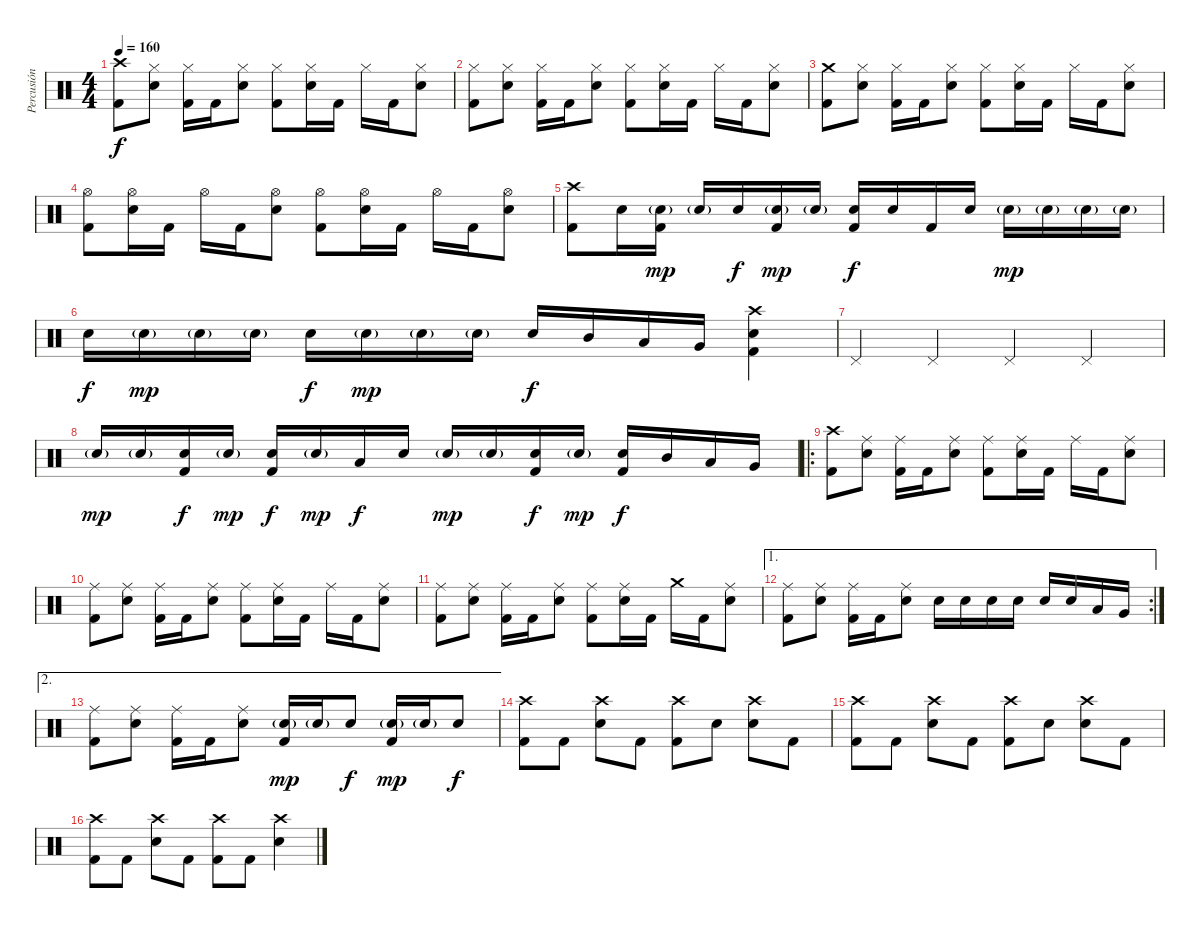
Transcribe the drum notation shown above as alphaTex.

\track ("Percusión" "Percusión") {instrument percussion}
\staff {score}
\articulation defaults
\ts (4 4)
\tempo 160
\clef neutral
\ks c
("Crash high (hit)" "Kick (hit) 2").8{dy f} ("Hi-Hat (closed)" "Electric Snare (hit)").8 ("Hi-Hat (closed)" "Kick (hit) 2").16 "Kick (hit) 2".16 ("Hi-Hat (closed)" "Electric Snare (hit)").8 ("Hi-Hat (closed)" "Kick (hit) 2").8 ("Hi-Hat (closed)" "Electric Snare (hit)").16 "Kick (hit) 2".16 "Hi-Hat (closed)".16 "Kick (hit) 2".16 ("Hi-Hat (closed)" "Electric Snare (hit)").8 |
("Hi-Hat (closed)" "Kick (hit) 2").8 ("Hi-Hat (closed)" "Electric Snare (hit)").8 ("Hi-Hat (closed)" "Kick (hit) 2").16 "Kick (hit) 2".16 ("Hi-Hat (closed)" "Electric Snare (hit)").8 ("Hi-Hat (closed)" "Kick (hit) 2").8 ("Hi-Hat (closed)" "Electric Snare (hit)").16 "Kick (hit) 2".16 "Hi-Hat (closed)".16 "Kick (hit) 2".16 ("Hi-Hat (closed)" "Electric Snare (hit)").8 |
("Crash medium (hit)" "Kick (hit) 2").8 ("Hi-Hat (closed)" "Electric Snare (hit)").8 ("Hi-Hat (closed)" "Kick (hit) 2").16 "Kick (hit) 2".16 ("Hi-Hat (closed)" "Electric Snare (hit)").8 ("Hi-Hat (closed)" "Kick (hit) 2").8 ("Hi-Hat (closed)" "Electric Snare (hit)").16 "Kick (hit) 2".16 "Hi-Hat (closed)".16 "Kick (hit) 2".16 ("Hi-Hat (closed)" "Electric Snare (hit)").8 |
("Hi-Hat (open)" "Kick (hit) 2").8 ("Hi-Hat (open)" "Electric Snare (hit)").16 "Kick (hit) 2".16 "Hi-Hat (open)".16 "Kick (hit) 2".16 ("Hi-Hat (open)" "Electric Snare (hit)").8 ("Hi-Hat (open)" "Kick (hit) 2").8 ("Hi-Hat (open)" "Electric Snare (hit)").16 "Kick (hit) 2".16 "Hi-Hat (open)".16 "Kick (hit) 2".16 ("Hi-Hat (open)" "Electric Snare (hit)").8 |
("Crash high (hit)" "Kick (hit) 2").8 "Electric Snare (hit)".16 ("Electric Snare (hit)"{g} "Kick (hit) 2").16{dy mp} "Electric Snare (hit)"{g}.16 "Electric Snare (hit)".16{dy f} ("Electric Snare (hit)"{g} "Kick (hit) 2").16{dy mp} "Electric Snare (hit)"{g}.16 ("Electric Snare (hit)" "Kick (hit) 2").16{dy f} "Electric Snare (hit)".16 "Kick (hit) 2".16 "Electric Snare (hit)".16 "Electric Snare (hit)"{g}.16{dy mp} "Electric Snare (hit)"{g}.16 "Electric Snare (hit)"{g}.16 "Electric Snare (hit)"{g}.16 |
"Electric Snare (hit)".16{dy f} "Electric Snare (hit)"{g}.16{dy mp} "Electric Snare (hit)"{g}.16 "Electric Snare (hit)"{g}.16 "Electric Snare (hit)".16{dy f} "Electric Snare (hit)"{g}.16{dy mp} "Electric Snare (hit)"{g}.16 "Electric Snare (hit)"{g}.16 "Electric Snare (hit)".16{dy f} "Mid Tom (hit)".16 "Low Tom (hit)".16 "Very Low Tom (hit)".16 ("Crash high (hit)" "Electric Snare (hit)" "Kick (hit) 2").4 |
"Pedal Hi-Hat (hit)".4 "Pedal Hi-Hat (hit)".4 "Pedal Hi-Hat (hit)".4 "Pedal Hi-Hat (hit)".4 |
"Electric Snare (hit)"{g}.16{dy mp} "Electric Snare (hit)"{g}.16 ("Electric Snare (hit)" "Kick (hit) 2").16{dy f} "Electric Snare (hit)"{g}.16{dy mp} ("Electric Snare (hit)" "Kick (hit) 2").16{dy f} "Electric Snare (hit)"{g}.16{dy mp} "Low Tom (hit)".16{dy f} "Electric Snare (hit)".16 "Electric Snare (hit)"{g}.16{dy mp} "Electric Snare (hit)"{g}.16 ("Electric Snare (hit)" "Kick (hit) 2").16{dy f} "Electric Snare (hit)"{g}.16{dy mp} ("Electric Snare (hit)" "Kick (hit) 2").16{dy f} "Mid Tom (hit)".16 "Low Tom (hit)".16 "Very Low Tom (hit)".16 |
\ro
("Crash high (hit)" "Kick (hit) 2").8 ("Ride (middle)" "Electric Snare (hit)").8 ("Ride (middle)" "Kick (hit) 2").16 "Kick (hit) 2".16 ("Ride (middle)" "Electric Snare (hit)").8 ("Ride (middle)" "Kick (hit) 2").8 ("Ride (middle)" "Electric Snare (hit)").16 "Kick (hit) 2".16 "Ride (middle)".16 "Kick (hit) 2".16 ("Ride (middle)" "Electric Snare (hit)").8 |
("Ride (middle)" "Kick (hit) 2").8 ("Ride (middle)" "Electric Snare (hit)").8 ("Ride (middle)" "Kick (hit) 2").16 "Kick (hit) 2".16 ("Ride (middle)" "Electric Snare (hit)").8 ("Ride (middle)" "Kick (hit) 2").8 ("Ride (middle)" "Electric Snare (hit)").16 "Kick (hit) 2".16 "Ride (middle)".16 "Kick (hit) 2".16 ("Ride (middle)" "Electric Snare (hit)").8 |
("Ride (middle)" "Kick (hit) 2").8 ("Ride (middle)" "Electric Snare (hit)").8 ("Ride (middle)" "Kick (hit) 2").16 "Kick (hit) 2".16 ("Ride (middle)" "Electric Snare (hit)").8 ("Ride (middle)" "Kick (hit) 2").8 ("Ride (middle)" "Electric Snare (hit)").16 "Kick (hit) 2".16 "Crash medium (hit)".16 "Kick (hit) 2".16 ("Ride (middle)" "Electric Snare (hit)").8 |
\ae 1
\rc 2
("Ride (middle)" "Kick (hit) 2").8 ("Ride (middle)" "Electric Snare (hit)").8 ("Ride (middle)" "Kick (hit) 2").16 "Kick (hit) 2".16 ("Ride (middle)" "Electric Snare (hit)").8 "Electric Snare (hit)".16 "Electric Snare (hit)".16 "Electric Snare (hit)".16 "Electric Snare (hit)".16 "Electric Snare (hit)".16 "Electric Snare (hit)".16 "Low Tom (hit)".16 "Very Low Tom (hit)".16 |
\ae 2
("Ride (middle)" "Kick (hit) 2").8 ("Ride (middle)" "Electric Snare (hit)").8 ("Ride (middle)" "Kick (hit) 2").16 "Kick (hit) 2".16 ("Ride (middle)" "Electric Snare (hit)").8 ("Electric Snare (hit)"{g} "Kick (hit) 2").16{dy mp} "Electric Snare (hit)"{g}.16 "Electric Snare (hit)".8{dy f} ("Electric Snare (hit)"{g} "Kick (hit) 2").16{dy mp} "Electric Snare (hit)"{g}.16 "Electric Snare (hit)".8{dy f} |
("Crash high (hit)" "Kick (hit) 2").8 "Kick (hit) 2".8 ("Crash high (hit)" "Electric Snare (hit)").8 "Kick (hit) 2".8 ("Crash high (hit)" "Kick (hit) 2").8 "Electric Snare (hit)".8 ("Crash high (hit)" "Electric Snare (hit)").8 "Kick (hit) 2".8 |
("Crash high (hit)" "Kick (hit) 2").8 "Kick (hit) 2".8 ("Crash high (hit)" "Electric Snare (hit)").8 "Kick (hit) 2".8 ("Crash high (hit)" "Kick (hit) 2").8 "Electric Snare (hit)".8 ("Crash high (hit)" "Electric Snare (hit)").8 "Kick (hit) 2".8 |
("Crash high (hit)" "Kick (hit) 2").8 "Kick (hit) 2".8 ("Crash high (hit)" "Electric Snare (hit)").8 "Kick (hit) 2".8 ("Crash high (hit)" "Kick (hit) 2").8 "Kick (hit) 2".8 ("Crash high (hit)" "Electric Snare (hit)").4
